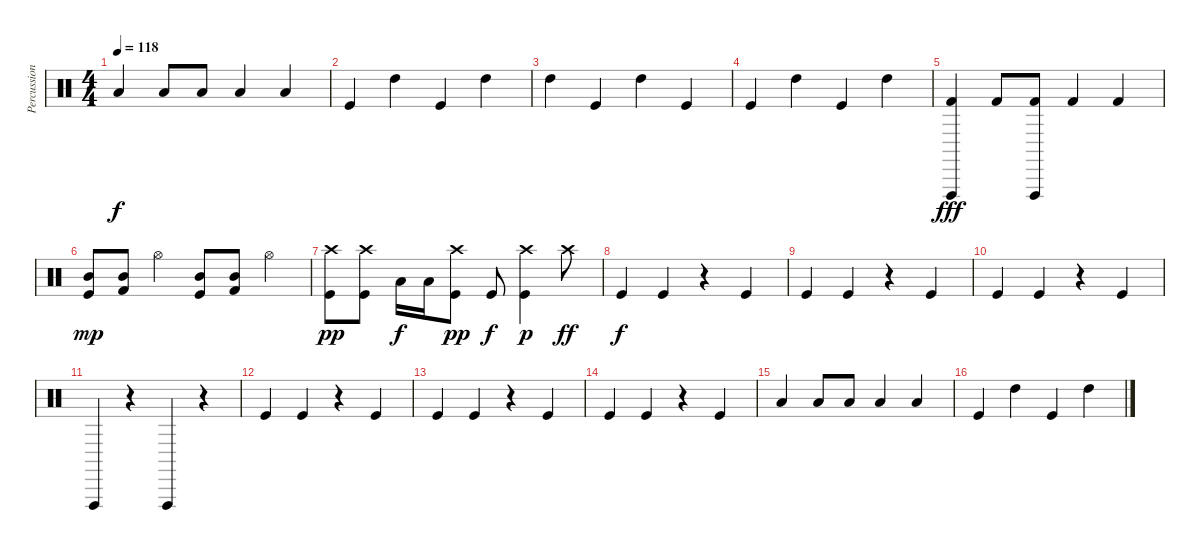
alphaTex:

\track ("Percussion" "Percussion") {instrument percussion}
\staff {score}
\articulation defaults
\ts (4 4)
\tempo 118
\clef neutral
\ks c "Low Tom (hit)".4{dy f} "Low Tom (hit)".8 "Low Tom (hit)".8 "Low Tom (hit)".4 "Low Tom (hit)".4
|
"Kick (hit)".4 "High Tom (hit)".4 "Kick (hit)".4 "High Tom (hit)".4 |
"High Tom (hit)".4 "Kick (hit)".4 "High Tom (hit)".4 "Kick (hit)".4 |
"Kick (hit)".4 "High Tom (hit)".4 "Kick (hit)".4 "High Tom (hit)".4 |
("Vibraslap (hit)" "Kick (hit) 2").4{dy fff} "Kick (hit) 2".8 ("Vibraslap (hit)" "Kick (hit) 2").8 "Kick (hit) 2".4 "Kick (hit) 2".4 |
("Mid Tom (hit)" "Kick (hit)").8{dy mp} ("Mid Tom (hit)" "Kick (hit) 2").8 "Hi-Hat (open)".4 ("Mid Tom (hit)" "Kick (hit)").8 ("Mid Tom (hit)" "Kick (hit) 2").8 "Hi-Hat (open)".4 |
("Kick (hit)" "Crash high (hit)").8{dy pp} ("Kick (hit)" "Crash high (hit)").8 "Low Tom (hit)".16{dy f} "Low Tom (hit)".16 ("Kick (hit)" "Crash high (hit)").8{dy pp} "Kick (hit)".8{dy f} ("Kick (hit)" "Crash high (hit)").4{dy p} "Crash high (hit)".8{dy ff} |
"Kick (hit)".4{dy f} "Kick (hit)".4 r.4 "Kick (hit)".4 |
"Kick (hit)".4 "Kick (hit)".4 r.4 "Kick (hit)".4 |
"Kick (hit)".4 "Kick (hit)".4 r.4 "Kick (hit)".4 |
"Vibraslap (hit)".4 r.4 "Vibraslap (hit)".4 r.4 |
"Kick (hit)".4 "Kick (hit)".4 r.4 "Kick (hit)".4 |
"Kick (hit)".4 "Kick (hit)".4 r.4 "Kick (hit)".4 |
"Kick (hit)".4 "Kick (hit)".4 r.4 "Kick (hit)".4 |
"Low Tom (hit)".4 "Low Tom (hit)".8 "Low Tom (hit)".8 "Low Tom (hit)".4 "Low Tom (hit)".4 |
"Kick (hit)".4 "High Tom (hit)".4 "Kick (hit)".4 "High Tom (hit)".4
